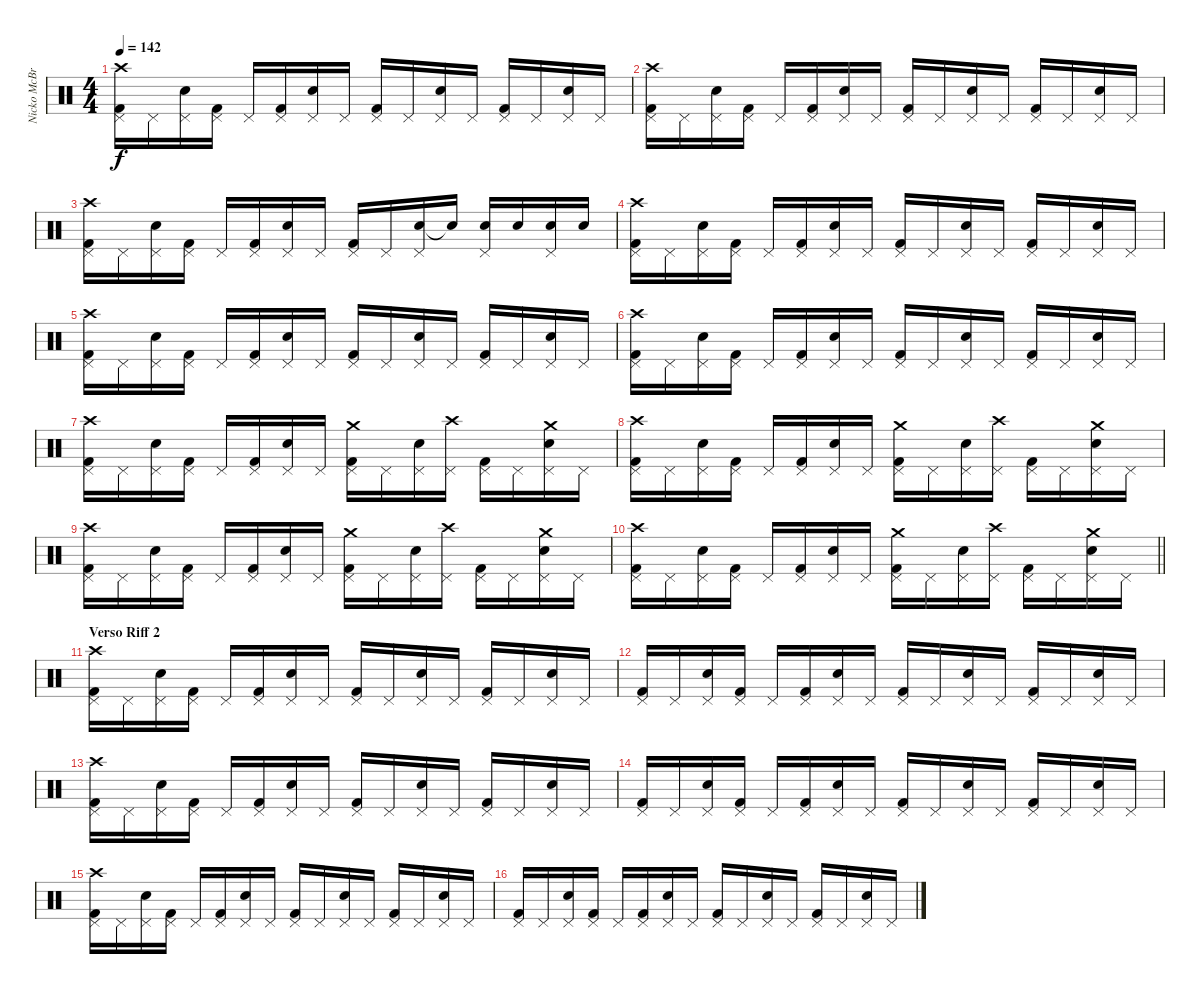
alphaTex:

\track ("Nicko McBrain" "Nicko McBr") {instrument percussion}
\staff {score}
\articulation defaults
\ts (4 4)
\tempo 142
\clef neutral
\ks c
("Kick (hit) 2" "Pedal Hi-Hat (hit)" "Crash high (hit)").16{dy f} "Pedal Hi-Hat (hit)".16 ("Snare (hit) 2" "Pedal Hi-Hat (hit)").16 ("Kick (hit) 2" "Pedal Hi-Hat (hit)").16 "Pedal Hi-Hat (hit)".16 ("Kick (hit) 2" "Pedal Hi-Hat (hit)").16 ("Snare (hit) 2" "Pedal Hi-Hat (hit)").16 "Pedal Hi-Hat (hit)".16 ("Kick (hit) 2" "Pedal Hi-Hat (hit)").16 "Pedal Hi-Hat (hit)".16 ("Snare (hit) 2" "Pedal Hi-Hat (hit)").16 "Pedal Hi-Hat (hit)".16 ("Kick (hit) 2" "Pedal Hi-Hat (hit)").16 "Pedal Hi-Hat (hit)".16 ("Snare (hit) 2" "Pedal Hi-Hat (hit)").16 "Pedal Hi-Hat (hit)".16 |
("Kick (hit) 2" "Pedal Hi-Hat (hit)" "Crash high (hit)").16 "Pedal Hi-Hat (hit)".16 ("Snare (hit) 2" "Pedal Hi-Hat (hit)").16 ("Kick (hit) 2" "Pedal Hi-Hat (hit)").16 "Pedal Hi-Hat (hit)".16 ("Kick (hit) 2" "Pedal Hi-Hat (hit)").16 ("Snare (hit) 2" "Pedal Hi-Hat (hit)").16 "Pedal Hi-Hat (hit)".16 ("Kick (hit) 2" "Pedal Hi-Hat (hit)").16 "Pedal Hi-Hat (hit)".16 ("Snare (hit) 2" "Pedal Hi-Hat (hit)").16 "Pedal Hi-Hat (hit)".16 ("Kick (hit) 2" "Pedal Hi-Hat (hit)").16 "Pedal Hi-Hat (hit)".16 ("Snare (hit) 2" "Pedal Hi-Hat (hit)").16 "Pedal Hi-Hat (hit)".16 |
("Kick (hit) 2" "Pedal Hi-Hat (hit)" "Crash high (hit)").16 "Pedal Hi-Hat (hit)".16 ("Snare (hit) 2" "Pedal Hi-Hat (hit)").16 ("Kick (hit) 2" "Pedal Hi-Hat (hit)").16 "Pedal Hi-Hat (hit)".16 ("Kick (hit) 2" "Pedal Hi-Hat (hit)").16 ("Snare (hit) 2" "Pedal Hi-Hat (hit)").16 "Pedal Hi-Hat (hit)".16 ("Kick (hit) 2" "Pedal Hi-Hat (hit)").16 "Pedal Hi-Hat (hit)".16 ("Snare (hit) 2" "Pedal Hi-Hat (hit)").16 "Snare (hit) 2"{t}.16 ("Snare (hit) 2" "Pedal Hi-Hat (hit)").16 "Snare (hit) 2".16 ("Snare (hit) 2" "Pedal Hi-Hat (hit)").16 "Snare (hit) 2".16 |
("Kick (hit) 2" "Pedal Hi-Hat (hit)" "Crash high (hit)").16 "Pedal Hi-Hat (hit)".16 ("Snare (hit) 2" "Pedal Hi-Hat (hit)").16 ("Kick (hit) 2" "Pedal Hi-Hat (hit)").16 "Pedal Hi-Hat (hit)".16 ("Kick (hit) 2" "Pedal Hi-Hat (hit)").16 ("Snare (hit) 2" "Pedal Hi-Hat (hit)").16 "Pedal Hi-Hat (hit)".16 ("Kick (hit) 2" "Pedal Hi-Hat (hit)").16 "Pedal Hi-Hat (hit)".16 ("Snare (hit) 2" "Pedal Hi-Hat (hit)").16 "Pedal Hi-Hat (hit)".16 ("Kick (hit) 2" "Pedal Hi-Hat (hit)").16 "Pedal Hi-Hat (hit)".16 ("Snare (hit) 2" "Pedal Hi-Hat (hit)").16 "Pedal Hi-Hat (hit)".16 |
("Kick (hit) 2" "Pedal Hi-Hat (hit)" "Crash high (hit)").16 "Pedal Hi-Hat (hit)".16 ("Snare (hit) 2" "Pedal Hi-Hat (hit)").16 ("Kick (hit) 2" "Pedal Hi-Hat (hit)").16 "Pedal Hi-Hat (hit)".16 ("Kick (hit) 2" "Pedal Hi-Hat (hit)").16 ("Snare (hit) 2" "Pedal Hi-Hat (hit)").16 "Pedal Hi-Hat (hit)".16 ("Kick (hit) 2" "Pedal Hi-Hat (hit)").16 "Pedal Hi-Hat (hit)".16 ("Snare (hit) 2" "Pedal Hi-Hat (hit)").16 "Pedal Hi-Hat (hit)".16 ("Kick (hit) 2" "Pedal Hi-Hat (hit)").16 "Pedal Hi-Hat (hit)".16 ("Snare (hit) 2" "Pedal Hi-Hat (hit)").16 "Pedal Hi-Hat (hit)".16 |
("Kick (hit) 2" "Pedal Hi-Hat (hit)" "Crash high (hit)").16 "Pedal Hi-Hat (hit)".16 ("Snare (hit) 2" "Pedal Hi-Hat (hit)").16 ("Kick (hit) 2" "Pedal Hi-Hat (hit)").16 "Pedal Hi-Hat (hit)".16 ("Kick (hit) 2" "Pedal Hi-Hat (hit)").16 ("Snare (hit) 2" "Pedal Hi-Hat (hit)").16 "Pedal Hi-Hat (hit)".16 ("Kick (hit) 2" "Pedal Hi-Hat (hit)").16 "Pedal Hi-Hat (hit)".16 ("Snare (hit) 2" "Pedal Hi-Hat (hit)").16 "Pedal Hi-Hat (hit)".16 ("Kick (hit) 2" "Pedal Hi-Hat (hit)").16 "Pedal Hi-Hat (hit)".16 ("Snare (hit) 2" "Pedal Hi-Hat (hit)").16 "Pedal Hi-Hat (hit)".16 |
("Kick (hit) 2" "Pedal Hi-Hat (hit)" "Crash high (hit)").16 "Pedal Hi-Hat (hit)".16 ("Snare (hit) 2" "Pedal Hi-Hat (hit)").16 ("Kick (hit) 2" "Pedal Hi-Hat (hit)").16 "Pedal Hi-Hat (hit)".16 ("Kick (hit) 2" "Pedal Hi-Hat (hit)").16 ("Snare (hit) 2" "Pedal Hi-Hat (hit)").16 "Pedal Hi-Hat (hit)".16 ("Kick (hit) 2" "Pedal Hi-Hat (hit)" "Crash medium (hit)").16 "Pedal Hi-Hat (hit)".16 ("Snare (hit) 2" "Pedal Hi-Hat (hit)").16 ("Pedal Hi-Hat (hit)" "Crash high (hit)").16 ("Kick (hit) 2" "Pedal Hi-Hat (hit)").16 "Pedal Hi-Hat (hit)".16 ("Snare (hit) 2" "Pedal Hi-Hat (hit)" "Crash medium (hit)").16 "Pedal Hi-Hat (hit)".16 |
("Kick (hit) 2" "Pedal Hi-Hat (hit)" "Crash high (hit)").16 "Pedal Hi-Hat (hit)".16 ("Snare (hit) 2" "Pedal Hi-Hat (hit)").16 ("Kick (hit) 2" "Pedal Hi-Hat (hit)").16 "Pedal Hi-Hat (hit)".16 ("Kick (hit) 2" "Pedal Hi-Hat (hit)").16 ("Snare (hit) 2" "Pedal Hi-Hat (hit)").16 "Pedal Hi-Hat (hit)".16 ("Kick (hit) 2" "Pedal Hi-Hat (hit)" "Crash medium (hit)").16 "Pedal Hi-Hat (hit)".16 ("Snare (hit) 2" "Pedal Hi-Hat (hit)").16 ("Pedal Hi-Hat (hit)" "Crash high (hit)").16 ("Kick (hit) 2" "Pedal Hi-Hat (hit)").16 "Pedal Hi-Hat (hit)".16 ("Snare (hit) 2" "Pedal Hi-Hat (hit)" "Crash medium (hit)").16 "Pedal Hi-Hat (hit)".16 |
("Kick (hit) 2" "Pedal Hi-Hat (hit)" "Crash high (hit)").16 "Pedal Hi-Hat (hit)".16 ("Snare (hit) 2" "Pedal Hi-Hat (hit)").16 ("Kick (hit) 2" "Pedal Hi-Hat (hit)").16 "Pedal Hi-Hat (hit)".16 ("Kick (hit) 2" "Pedal Hi-Hat (hit)").16 ("Snare (hit) 2" "Pedal Hi-Hat (hit)").16 "Pedal Hi-Hat (hit)".16 ("Kick (hit) 2" "Pedal Hi-Hat (hit)" "Crash medium (hit)").16 "Pedal Hi-Hat (hit)".16 ("Snare (hit) 2" "Pedal Hi-Hat (hit)").16 ("Pedal Hi-Hat (hit)" "Crash high (hit)").16 ("Kick (hit) 2" "Pedal Hi-Hat (hit)").16 "Pedal Hi-Hat (hit)".16 ("Snare (hit) 2" "Pedal Hi-Hat (hit)" "Crash medium (hit)").16 "Pedal Hi-Hat (hit)".16 |
\barLineRight lightlight
("Kick (hit) 2" "Pedal Hi-Hat (hit)" "Crash high (hit)").16 "Pedal Hi-Hat (hit)".16 ("Snare (hit) 2" "Pedal Hi-Hat (hit)").16 ("Kick (hit) 2" "Pedal Hi-Hat (hit)").16 "Pedal Hi-Hat (hit)".16 ("Kick (hit) 2" "Pedal Hi-Hat (hit)").16 ("Snare (hit) 2" "Pedal Hi-Hat (hit)").16 "Pedal Hi-Hat (hit)".16 ("Kick (hit) 2" "Pedal Hi-Hat (hit)" "Crash medium (hit)").16 "Pedal Hi-Hat (hit)".16 ("Snare (hit) 2" "Pedal Hi-Hat (hit)").16 ("Pedal Hi-Hat (hit)" "Crash high (hit)").16 ("Kick (hit) 2" "Pedal Hi-Hat (hit)").16 "Pedal Hi-Hat (hit)".16 ("Snare (hit) 2" "Pedal Hi-Hat (hit)" "Crash medium (hit)").16 "Pedal Hi-Hat (hit)".16 |
\section ("" "Verso Riff 2")
("Kick (hit) 2" "Pedal Hi-Hat (hit)" "Crash high (hit)").16 "Pedal Hi-Hat (hit)".16 ("Snare (hit) 2" "Pedal Hi-Hat (hit)").16 ("Kick (hit) 2" "Pedal Hi-Hat (hit)").16 "Pedal Hi-Hat (hit)".16 ("Kick (hit) 2" "Pedal Hi-Hat (hit)").16 ("Snare (hit) 2" "Pedal Hi-Hat (hit)").16 "Pedal Hi-Hat (hit)".16 ("Kick (hit) 2" "Pedal Hi-Hat (hit)").16 "Pedal Hi-Hat (hit)".16 ("Snare (hit) 2" "Pedal Hi-Hat (hit)").16 "Pedal Hi-Hat (hit)".16 ("Kick (hit) 2" "Pedal Hi-Hat (hit)").16 "Pedal Hi-Hat (hit)".16 ("Snare (hit) 2" "Pedal Hi-Hat (hit)").16 "Pedal Hi-Hat (hit)".16 |
("Kick (hit) 2" "Pedal Hi-Hat (hit)").16 "Pedal Hi-Hat (hit)".16 ("Snare (hit) 2" "Pedal Hi-Hat (hit)").16 ("Kick (hit) 2" "Pedal Hi-Hat (hit)").16 "Pedal Hi-Hat (hit)".16 ("Kick (hit) 2" "Pedal Hi-Hat (hit)").16 ("Snare (hit) 2" "Pedal Hi-Hat (hit)").16 "Pedal Hi-Hat (hit)".16 ("Kick (hit) 2" "Pedal Hi-Hat (hit)").16 "Pedal Hi-Hat (hit)".16 ("Snare (hit) 2" "Pedal Hi-Hat (hit)").16 "Pedal Hi-Hat (hit)".16 ("Kick (hit) 2" "Pedal Hi-Hat (hit)").16 "Pedal Hi-Hat (hit)".16 ("Snare (hit) 2" "Pedal Hi-Hat (hit)").16 "Pedal Hi-Hat (hit)".16 |
("Kick (hit) 2" "Pedal Hi-Hat (hit)" "Crash high (hit)").16 "Pedal Hi-Hat (hit)".16 ("Snare (hit) 2" "Pedal Hi-Hat (hit)").16 ("Kick (hit) 2" "Pedal Hi-Hat (hit)").16 "Pedal Hi-Hat (hit)".16 ("Kick (hit) 2" "Pedal Hi-Hat (hit)").16 ("Snare (hit) 2" "Pedal Hi-Hat (hit)").16 "Pedal Hi-Hat (hit)".16 ("Kick (hit) 2" "Pedal Hi-Hat (hit)").16 "Pedal Hi-Hat (hit)".16 ("Snare (hit) 2" "Pedal Hi-Hat (hit)").16 "Pedal Hi-Hat (hit)".16 ("Kick (hit) 2" "Pedal Hi-Hat (hit)").16 "Pedal Hi-Hat (hit)".16 ("Snare (hit) 2" "Pedal Hi-Hat (hit)").16 "Pedal Hi-Hat (hit)".16 |
("Kick (hit) 2" "Pedal Hi-Hat (hit)").16 "Pedal Hi-Hat (hit)".16 ("Snare (hit) 2" "Pedal Hi-Hat (hit)").16 ("Kick (hit) 2" "Pedal Hi-Hat (hit)").16 "Pedal Hi-Hat (hit)".16 ("Kick (hit) 2" "Pedal Hi-Hat (hit)").16 ("Snare (hit) 2" "Pedal Hi-Hat (hit)").16 "Pedal Hi-Hat (hit)".16 ("Kick (hit) 2" "Pedal Hi-Hat (hit)").16 "Pedal Hi-Hat (hit)".16 ("Snare (hit) 2" "Pedal Hi-Hat (hit)").16 "Pedal Hi-Hat (hit)".16 ("Kick (hit) 2" "Pedal Hi-Hat (hit)").16 "Pedal Hi-Hat (hit)".16 ("Snare (hit) 2" "Pedal Hi-Hat (hit)").16 "Pedal Hi-Hat (hit)".16 |
("Kick (hit) 2" "Pedal Hi-Hat (hit)" "Crash high (hit)").16 "Pedal Hi-Hat (hit)".16 ("Snare (hit) 2" "Pedal Hi-Hat (hit)").16 ("Kick (hit) 2" "Pedal Hi-Hat (hit)").16 "Pedal Hi-Hat (hit)".16 ("Kick (hit) 2" "Pedal Hi-Hat (hit)").16 ("Snare (hit) 2" "Pedal Hi-Hat (hit)").16 "Pedal Hi-Hat (hit)".16 ("Kick (hit) 2" "Pedal Hi-Hat (hit)").16 "Pedal Hi-Hat (hit)".16 ("Snare (hit) 2" "Pedal Hi-Hat (hit)").16 "Pedal Hi-Hat (hit)".16 ("Kick (hit) 2" "Pedal Hi-Hat (hit)").16 "Pedal Hi-Hat (hit)".16 ("Snare (hit) 2" "Pedal Hi-Hat (hit)").16 "Pedal Hi-Hat (hit)".16 |
("Kick (hit) 2" "Pedal Hi-Hat (hit)").16 "Pedal Hi-Hat (hit)".16 ("Snare (hit) 2" "Pedal Hi-Hat (hit)").16 ("Kick (hit) 2" "Pedal Hi-Hat (hit)").16 "Pedal Hi-Hat (hit)".16 ("Kick (hit) 2" "Pedal Hi-Hat (hit)").16 ("Snare (hit) 2" "Pedal Hi-Hat (hit)").16 "Pedal Hi-Hat (hit)".16 ("Kick (hit) 2" "Pedal Hi-Hat (hit)").16 "Pedal Hi-Hat (hit)".16 ("Snare (hit) 2" "Pedal Hi-Hat (hit)").16 "Pedal Hi-Hat (hit)".16 ("Kick (hit) 2" "Pedal Hi-Hat (hit)").16 "Pedal Hi-Hat (hit)".16 ("Snare (hit) 2" "Pedal Hi-Hat (hit)").16 "Pedal Hi-Hat (hit)".16
